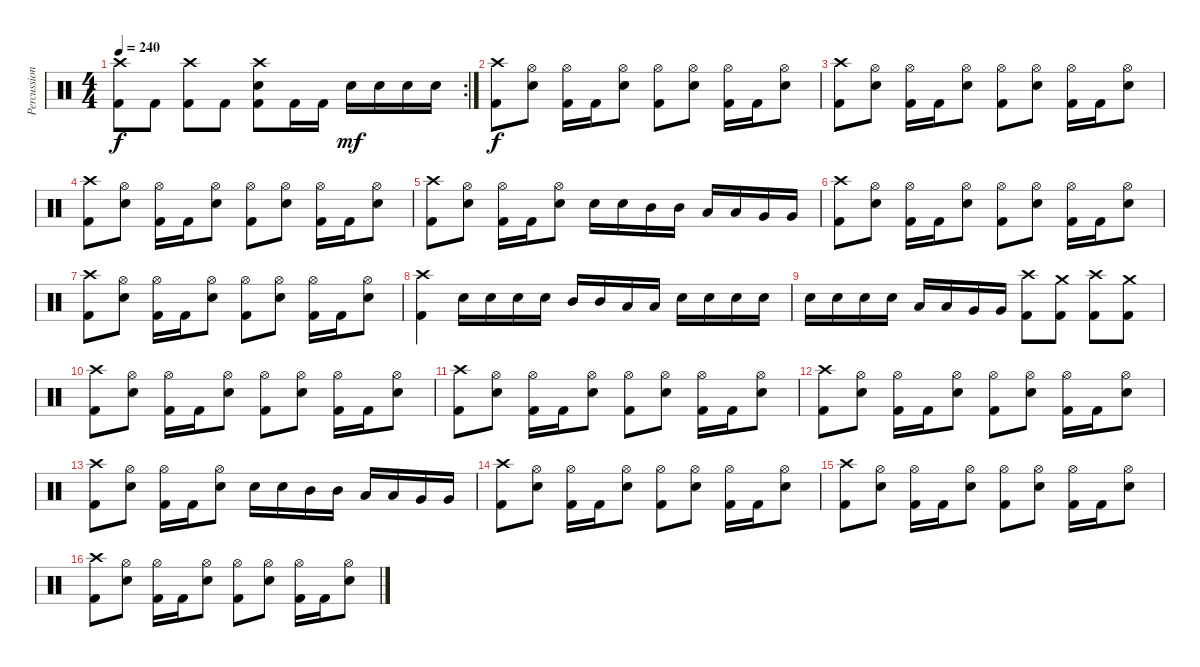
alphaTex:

\track ("Percussion" "Percussion") {instrument percussion}
\staff {score}
\articulation defaults
\rc 2
\ts (4 4)
\tempo 240
\clef neutral
\ks c
("Crash high (hit)" "Kick (hit) 2").8{dy f} "Kick (hit) 2".8 ("Crash high (hit)" "Kick (hit) 2").8 "Kick (hit) 2".8 ("Crash high (hit)" "Snare (hit) 2" "Kick (hit) 2").8 "Kick (hit) 2".16 "Kick (hit) 2".16 "Snare (hit) 2".16{dy mf} "Snare (hit) 2".16 "Snare (hit) 2".16 "Snare (hit) 2".16 |
("Crash high (hit)" "Kick (hit) 2").8{dy f} ("Hi-Hat (open)" "Snare (hit) 2").8 ("Hi-Hat (open)" "Kick (hit) 2").16 "Kick (hit) 2".16 ("Hi-Hat (open)" "Snare (hit) 2").8 ("Hi-Hat (open)" "Kick (hit) 2").8 ("Hi-Hat (open)" "Snare (hit) 2").8 ("Hi-Hat (open)" "Kick (hit) 2").16 "Kick (hit) 2".16 ("Hi-Hat (open)" "Snare (hit) 2").8 |
("Crash high (hit)" "Kick (hit) 2").8 ("Hi-Hat (open)" "Snare (hit) 2").8 ("Hi-Hat (open)" "Kick (hit) 2").16 "Kick (hit) 2".16 ("Hi-Hat (open)" "Snare (hit) 2").8 ("Hi-Hat (open)" "Kick (hit) 2").8 ("Hi-Hat (open)" "Snare (hit) 2").8 ("Hi-Hat (open)" "Kick (hit) 2").16 "Kick (hit) 2".16 ("Hi-Hat (open)" "Snare (hit) 2").8 |
("Crash high (hit)" "Kick (hit) 2").8 ("Hi-Hat (open)" "Snare (hit) 2").8 ("Hi-Hat (open)" "Kick (hit) 2").16 "Kick (hit) 2".16 ("Hi-Hat (open)" "Snare (hit) 2").8 ("Hi-Hat (open)" "Kick (hit) 2").8 ("Hi-Hat (open)" "Snare (hit) 2").8 ("Hi-Hat (open)" "Kick (hit) 2").16 "Kick (hit) 2".16 ("Hi-Hat (open)" "Snare (hit) 2").8 |
("Crash high (hit)" "Kick (hit) 2").8 ("Hi-Hat (open)" "Snare (hit) 2").8 ("Hi-Hat (open)" "Kick (hit) 2").16 "Kick (hit) 2".16 ("Hi-Hat (open)" "Snare (hit) 2").8 "Snare (hit) 2".16 "Snare (hit) 2".16 "Mid Tom (hit)".16 "Mid Tom (hit)".16 "Low Tom (hit)".16 "Low Tom (hit)".16 "Very Low Tom (hit)".16 "Very Low Tom (hit)".16 |
("Crash high (hit)" "Kick (hit) 2").8 ("Hi-Hat (open)" "Snare (hit) 2").8 ("Hi-Hat (open)" "Kick (hit) 2").16 "Kick (hit) 2".16 ("Hi-Hat (open)" "Snare (hit) 2").8 ("Hi-Hat (open)" "Kick (hit) 2").8 ("Hi-Hat (open)" "Snare (hit) 2").8 ("Hi-Hat (open)" "Kick (hit) 2").16 "Kick (hit) 2".16 ("Hi-Hat (open)" "Snare (hit) 2").8 |
("Crash high (hit)" "Kick (hit) 2").8 ("Hi-Hat (open)" "Snare (hit) 2").8 ("Hi-Hat (open)" "Kick (hit) 2").16 "Kick (hit) 2".16 ("Hi-Hat (open)" "Snare (hit) 2").8 ("Hi-Hat (open)" "Kick (hit) 2").8 ("Hi-Hat (open)" "Snare (hit) 2").8 ("Hi-Hat (open)" "Kick (hit) 2").16 "Kick (hit) 2".16 ("Hi-Hat (open)" "Snare (hit) 2").8 |
("Crash high (hit)" "Kick (hit) 2").4 "Snare (hit) 2".16 "Snare (hit) 2".16 "Snare (hit) 2".16 "Snare (hit) 2".16 "Mid Tom (hit)".16 "Mid Tom (hit)".16 "Low Tom (hit)".16 "Low Tom (hit)".16 "Snare (hit) 2".16 "Snare (hit) 2".16 "Snare (hit) 2".16 "Snare (hit) 2".16 |
"Snare (hit) 2".16 "Snare (hit) 2".16 "Snare (hit) 2".16 "Snare (hit) 2".16 "Low Tom (hit)".16 "Low Tom (hit)".16 "Very Low Tom (hit)".16 "Very Low Tom (hit)".16 ("Crash high (hit)" "Kick (hit) 2").8 ("Crash medium (hit)" "Kick (hit) 2").8 ("Crash high (hit)" "Kick (hit) 2").8 ("Crash medium (hit)" "Kick (hit) 2").8 |
("Crash high (hit)" "Kick (hit) 2").8 ("Hi-Hat (open)" "Snare (hit) 2").8 ("Hi-Hat (open)" "Kick (hit) 2").16 "Kick (hit) 2".16 ("Hi-Hat (open)" "Snare (hit) 2").8 ("Hi-Hat (open)" "Kick (hit) 2").8 ("Hi-Hat (open)" "Snare (hit) 2").8 ("Hi-Hat (open)" "Kick (hit) 2").16 "Kick (hit) 2".16 ("Hi-Hat (open)" "Snare (hit) 2").8 |
("Crash high (hit)" "Kick (hit) 2").8 ("Hi-Hat (open)" "Snare (hit) 2").8 ("Hi-Hat (open)" "Kick (hit) 2").16 "Kick (hit) 2".16 ("Hi-Hat (open)" "Snare (hit) 2").8 ("Hi-Hat (open)" "Kick (hit) 2").8 ("Hi-Hat (open)" "Snare (hit) 2").8 ("Hi-Hat (open)" "Kick (hit) 2").16 "Kick (hit) 2".16 ("Hi-Hat (open)" "Snare (hit) 2").8 |
("Crash high (hit)" "Kick (hit) 2").8 ("Hi-Hat (open)" "Snare (hit) 2").8 ("Hi-Hat (open)" "Kick (hit) 2").16 "Kick (hit) 2".16 ("Hi-Hat (open)" "Snare (hit) 2").8 ("Hi-Hat (open)" "Kick (hit) 2").8 ("Hi-Hat (open)" "Snare (hit) 2").8 ("Hi-Hat (open)" "Kick (hit) 2").16 "Kick (hit) 2".16 ("Hi-Hat (open)" "Snare (hit) 2").8 |
("Crash high (hit)" "Kick (hit) 2").8 ("Hi-Hat (open)" "Snare (hit) 2").8 ("Hi-Hat (open)" "Kick (hit) 2").16 "Kick (hit) 2".16 ("Hi-Hat (open)" "Snare (hit) 2").8 "Snare (hit) 2".16 "Snare (hit) 2".16 "Mid Tom (hit)".16 "Mid Tom (hit)".16 "Low Tom (hit)".16 "Low Tom (hit)".16 "Very Low Tom (hit)".16 "Very Low Tom (hit)".16 |
("Crash high (hit)" "Kick (hit) 2").8 ("Hi-Hat (open)" "Snare (hit) 2").8 ("Hi-Hat (open)" "Kick (hit) 2").16 "Kick (hit) 2".16 ("Hi-Hat (open)" "Snare (hit) 2").8 ("Hi-Hat (open)" "Kick (hit) 2").8 ("Hi-Hat (open)" "Snare (hit) 2").8 ("Hi-Hat (open)" "Kick (hit) 2").16 "Kick (hit) 2".16 ("Hi-Hat (open)" "Snare (hit) 2").8 |
("Crash high (hit)" "Kick (hit) 2").8 ("Hi-Hat (open)" "Snare (hit) 2").8 ("Hi-Hat (open)" "Kick (hit) 2").16 "Kick (hit) 2".16 ("Hi-Hat (open)" "Snare (hit) 2").8 ("Hi-Hat (open)" "Kick (hit) 2").8 ("Hi-Hat (open)" "Snare (hit) 2").8 ("Hi-Hat (open)" "Kick (hit) 2").16 "Kick (hit) 2".16 ("Hi-Hat (open)" "Snare (hit) 2").8 |
("Crash high (hit)" "Kick (hit) 2").8 ("Hi-Hat (open)" "Snare (hit) 2").8 ("Hi-Hat (open)" "Kick (hit) 2").16 "Kick (hit) 2".16 ("Hi-Hat (open)" "Snare (hit) 2").8 ("Hi-Hat (open)" "Kick (hit) 2").8 ("Hi-Hat (open)" "Snare (hit) 2").8 ("Hi-Hat (open)" "Kick (hit) 2").16 "Kick (hit) 2".16 ("Hi-Hat (open)" "Snare (hit) 2").8
